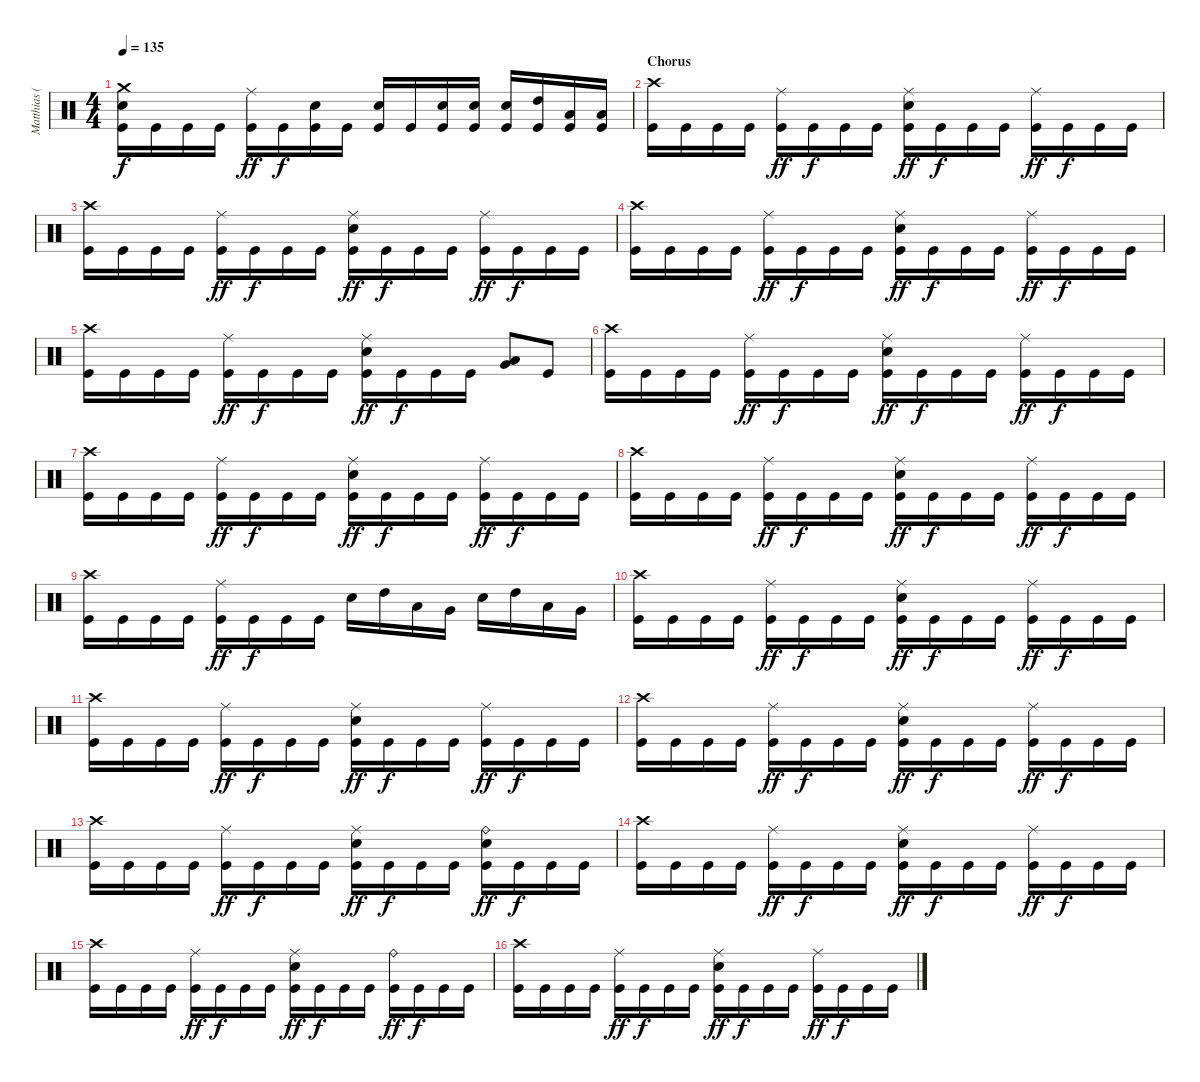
\track ("Matthias (Drums)" "Matthias (") {instrument percussion}
\staff {score}
\articulation defaults
\ts (4 4)
\tempo 135
\clef neutral
\ks c
("Crash medium (hit)" "Electric Snare (hit)" "Kick (hit)").16{dy f} "Kick (hit)".16 "Kick (hit)".16 "Kick (hit)".16 ("Ride (middle)" "Kick (hit)").16{dy ff} "Kick (hit)".16{dy f} ("Electric Snare (hit)" "Kick (hit)").16 "Kick (hit)".16 ("Electric Snare (hit)" "Kick (hit)").16 "Kick (hit)".16 ("Electric Snare (hit)" "Kick (hit)").16 ("Electric Snare (hit)" "Kick (hit)").16 ("Electric Snare (hit)" "Kick (hit)").16 ("High Tom (hit)" "Kick (hit)").16 ("Low Tom (hit)" "Kick (hit)").16 ("Low Tom (hit)" "Kick (hit)").16 |
\section ("" "Chorus")
("Crash high (hit)" "Kick (hit)").16 "Kick (hit)".16 "Kick (hit)".16 "Kick (hit)".16 ("Ride (middle)" "Kick (hit)").16{dy ff} "Kick (hit)".16{dy f} "Kick (hit)".16 "Kick (hit)".16 ("Ride (middle)" "Electric Snare (hit)" "Kick (hit)").16{dy ff} "Kick (hit)".16{dy f} "Kick (hit)".16 "Kick (hit)".16 ("Ride (middle)" "Kick (hit)").16{dy ff} "Kick (hit)".16{dy f} "Kick (hit)".16 "Kick (hit)".16 |
("Crash high (hit)" "Kick (hit)").16 "Kick (hit)".16 "Kick (hit)".16 "Kick (hit)".16 ("Ride (middle)" "Kick (hit)").16{dy ff} "Kick (hit)".16{dy f} "Kick (hit)".16 "Kick (hit)".16 ("Ride (middle)" "Electric Snare (hit)" "Kick (hit)").16{dy ff} "Kick (hit)".16{dy f} "Kick (hit)".16 "Kick (hit)".16 ("Ride (middle)" "Kick (hit)").16{dy ff} "Kick (hit)".16{dy f} "Kick (hit)".16 "Kick (hit)".16 |
("Crash high (hit)" "Kick (hit)").16 "Kick (hit)".16 "Kick (hit)".16 "Kick (hit)".16 ("Ride (middle)" "Kick (hit)").16{dy ff} "Kick (hit)".16{dy f} "Kick (hit)".16 "Kick (hit)".16 ("Ride (middle)" "Electric Snare (hit)" "Kick (hit)").16{dy ff} "Kick (hit)".16{dy f} "Kick (hit)".16 "Kick (hit)".16 ("Ride (middle)" "Kick (hit)").16{dy ff} "Kick (hit)".16{dy f} "Kick (hit)".16 "Kick (hit)".16 |
("Crash high (hit)" "Kick (hit)").16 "Kick (hit)".16 "Kick (hit)".16 "Kick (hit)".16 ("Ride (middle)" "Kick (hit)").16{dy ff} "Kick (hit)".16{dy f} "Kick (hit)".16 "Kick (hit)".16 ("Ride (middle)" "Electric Snare (hit)" "Kick (hit)").16{dy ff} "Kick (hit)".16{dy f} "Kick (hit)".16 "Kick (hit)".16 ("Low Tom (hit)" "Very Low Tom (hit)").8{bu 120} "Kick (hit)".8 |
("Crash high (hit)" "Kick (hit)").16 "Kick (hit)".16 "Kick (hit)".16 "Kick (hit)".16 ("Ride (middle)" "Kick (hit)").16{dy ff} "Kick (hit)".16{dy f} "Kick (hit)".16 "Kick (hit)".16 ("Ride (middle)" "Electric Snare (hit)" "Kick (hit)").16{dy ff} "Kick (hit)".16{dy f} "Kick (hit)".16 "Kick (hit)".16 ("Ride (middle)" "Kick (hit)").16{dy ff} "Kick (hit)".16{dy f} "Kick (hit)".16 "Kick (hit)".16 |
("Crash high (hit)" "Kick (hit)").16 "Kick (hit)".16 "Kick (hit)".16 "Kick (hit)".16 ("Ride (middle)" "Kick (hit)").16{dy ff} "Kick (hit)".16{dy f} "Kick (hit)".16 "Kick (hit)".16 ("Ride (middle)" "Electric Snare (hit)" "Kick (hit)").16{dy ff} "Kick (hit)".16{dy f} "Kick (hit)".16 "Kick (hit)".16 ("Ride (middle)" "Kick (hit)").16{dy ff} "Kick (hit)".16{dy f} "Kick (hit)".16 "Kick (hit)".16 |
("Crash high (hit)" "Kick (hit)").16 "Kick (hit)".16 "Kick (hit)".16 "Kick (hit)".16 ("Ride (middle)" "Kick (hit)").16{dy ff} "Kick (hit)".16{dy f} "Kick (hit)".16 "Kick (hit)".16 ("Ride (middle)" "Electric Snare (hit)" "Kick (hit)").16{dy ff} "Kick (hit)".16{dy f} "Kick (hit)".16 "Kick (hit)".16 ("Ride (middle)" "Kick (hit)").16{dy ff} "Kick (hit)".16{dy f} "Kick (hit)".16 "Kick (hit)".16 |
("Crash high (hit)" "Kick (hit)").16 "Kick (hit)".16 "Kick (hit)".16 "Kick (hit)".16 ("Ride (middle)" "Kick (hit)").16{dy ff} "Kick (hit)".16{dy f} "Kick (hit)".16 "Kick (hit)".16 "Electric Snare (hit)".16 "High Tom (hit)".16 "Low Tom (hit)".16 "Very Low Tom (hit)".16 "Electric Snare (hit)".16 "High Tom (hit)".16 "Low Tom (hit)".16 "Very Low Tom (hit)".16 |
("Crash high (hit)" "Kick (hit)").16 "Kick (hit)".16 "Kick (hit)".16 "Kick (hit)".16 ("Ride (middle)" "Kick (hit)").16{dy ff} "Kick (hit)".16{dy f} "Kick (hit)".16 "Kick (hit)".16 ("Ride (middle)" "Electric Snare (hit)" "Kick (hit)").16{dy ff} "Kick (hit)".16{dy f} "Kick (hit)".16 "Kick (hit)".16 ("Ride (middle)" "Kick (hit)").16{dy ff} "Kick (hit)".16{dy f} "Kick (hit)".16 "Kick (hit)".16 |
("Crash high (hit)" "Kick (hit)").16 "Kick (hit)".16 "Kick (hit)".16 "Kick (hit)".16 ("Ride (middle)" "Kick (hit)").16{dy ff} "Kick (hit)".16{dy f} "Kick (hit)".16 "Kick (hit)".16 ("Ride (middle)" "Electric Snare (hit)" "Kick (hit)").16{dy ff} "Kick (hit)".16{dy f} "Kick (hit)".16 "Kick (hit)".16 ("Ride (middle)" "Kick (hit)").16{dy ff} "Kick (hit)".16{dy f} "Kick (hit)".16 "Kick (hit)".16 |
("Crash high (hit)" "Kick (hit)").16 "Kick (hit)".16 "Kick (hit)".16 "Kick (hit)".16 ("Ride (middle)" "Kick (hit)").16{dy ff} "Kick (hit)".16{dy f} "Kick (hit)".16 "Kick (hit)".16 ("Ride (middle)" "Electric Snare (hit)" "Kick (hit)").16{dy ff} "Kick (hit)".16{dy f} "Kick (hit)".16 "Kick (hit)".16 ("Ride (middle)" "Kick (hit)").16{dy ff} "Kick (hit)".16{dy f} "Kick (hit)".16 "Kick (hit)".16 |
("Crash high (hit)" "Kick (hit)").16 "Kick (hit)".16 "Kick (hit)".16 "Kick (hit)".16 ("Ride (middle)" "Kick (hit)").16{dy ff} "Kick (hit)".16{dy f} "Kick (hit)".16 "Kick (hit)".16 ("Ride (middle)" "Electric Snare (hit)" "Kick (hit)").16{dy ff} "Kick (hit)".16{dy f} "Kick (hit)".16 "Kick (hit)".16 ("Ride (bell)" "Electric Snare (hit)" "Kick (hit)").16{dy ff} "Kick (hit)".16{dy f} "Kick (hit)".16 "Kick (hit)".16 |
("Crash high (hit)" "Kick (hit)").16 "Kick (hit)".16 "Kick (hit)".16 "Kick (hit)".16 ("Ride (middle)" "Kick (hit)").16{dy ff} "Kick (hit)".16{dy f} "Kick (hit)".16 "Kick (hit)".16 ("Ride (middle)" "Electric Snare (hit)" "Kick (hit)").16{dy ff} "Kick (hit)".16{dy f} "Kick (hit)".16 "Kick (hit)".16 ("Ride (middle)" "Kick (hit)").16{dy ff} "Kick (hit)".16{dy f} "Kick (hit)".16 "Kick (hit)".16 |
("Crash high (hit)" "Kick (hit)").16 "Kick (hit)".16 "Kick (hit)".16 "Kick (hit)".16 ("Ride (middle)" "Kick (hit)").16{dy ff} "Kick (hit)".16{dy f} "Kick (hit)".16 "Kick (hit)".16 ("Ride (middle)" "Electric Snare (hit)" "Kick (hit)").16{dy ff} "Kick (hit)".16{dy f} "Kick (hit)".16 "Kick (hit)".16 ("Ride (bell)" "Kick (hit)").16{dy ff} "Kick (hit)".16{dy f} "Kick (hit)".16 "Kick (hit)".16 |
("Crash high (hit)" "Kick (hit)").16 "Kick (hit)".16 "Kick (hit)".16 "Kick (hit)".16 ("Ride (middle)" "Kick (hit)").16{dy ff} "Kick (hit)".16{dy f} "Kick (hit)".16 "Kick (hit)".16 ("Ride (middle)" "Electric Snare (hit)" "Kick (hit)").16{dy ff} "Kick (hit)".16{dy f} "Kick (hit)".16 "Kick (hit)".16 ("Ride (middle)" "Kick (hit)").16{dy ff} "Kick (hit)".16{dy f} "Kick (hit)".16 "Kick (hit)".16
